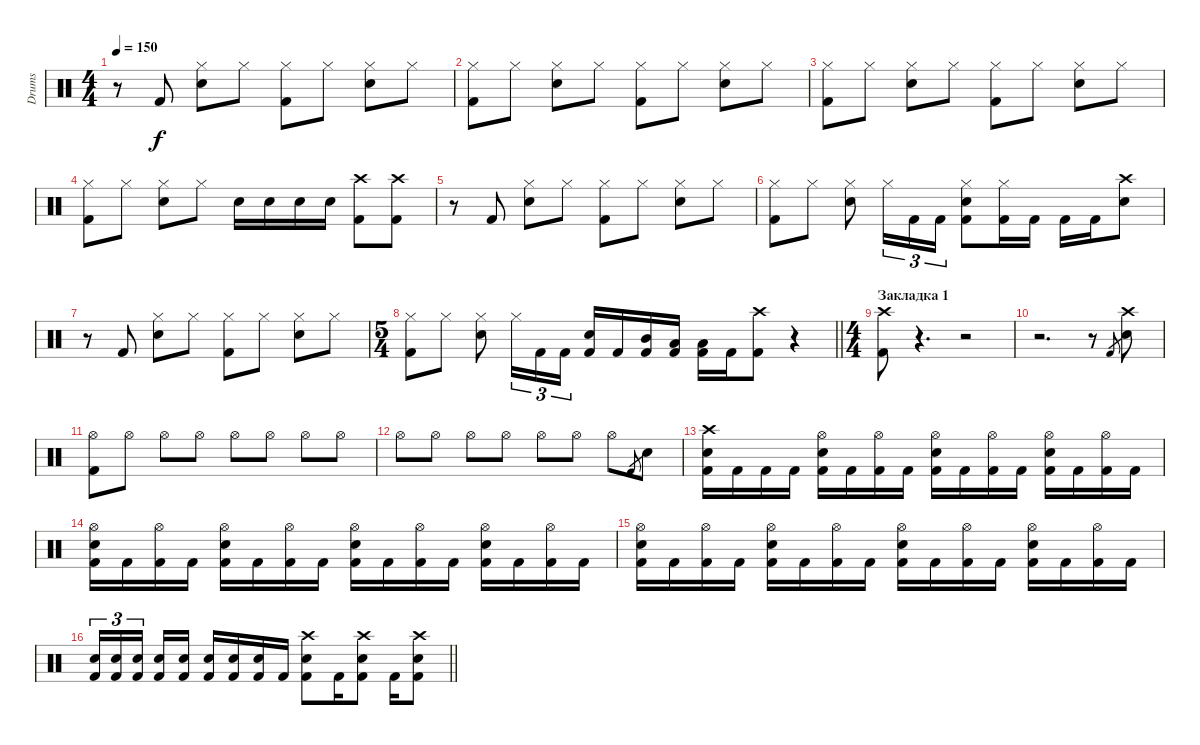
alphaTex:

\track ("Drums" "Drums") {instrument percussion}
\staff {score}
\articulation defaults
\ts (4 4)
\tempo 150
\clef neutral
\ks c
r.8{dy f} "Kick (hit) 2".8 ("Snare (hit) 2" "Hi-Hat (closed)").8 "Hi-Hat (closed)".8 ("Kick (hit) 2" "Hi-Hat (closed)").8 "Hi-Hat (closed)".8 ("Snare (hit) 2" "Hi-Hat (closed)").8 "Hi-Hat (closed)".8 |
("Kick (hit) 2" "Hi-Hat (closed)").8 "Hi-Hat (closed)".8 ("Snare (hit) 2" "Hi-Hat (closed)").8 "Hi-Hat (closed)".8 ("Kick (hit) 2" "Hi-Hat (closed)").8 "Hi-Hat (closed)".8 ("Snare (hit) 2" "Hi-Hat (closed)").8 "Hi-Hat (closed)".8 |
("Kick (hit) 2" "Hi-Hat (closed)").8 "Hi-Hat (closed)".8 ("Snare (hit) 2" "Hi-Hat (closed)").8 "Hi-Hat (closed)".8 ("Kick (hit) 2" "Hi-Hat (closed)").8 "Hi-Hat (closed)".8 ("Snare (hit) 2" "Hi-Hat (closed)").8 "Hi-Hat (closed)".8 |
("Kick (hit) 2" "Hi-Hat (closed)").8 "Hi-Hat (closed)".8 ("Snare (hit) 2" "Hi-Hat (closed)").8 "Hi-Hat (closed)".8 "Snare (hit) 2".16 "Snare (hit) 2".16 "Snare (hit) 2".16 "Snare (hit) 2".16 ("Crash high (hit)" "Kick (hit) 2").8 ("Crash high (hit)" "Kick (hit) 2").8 |
r.8 "Kick (hit) 2".8 ("Snare (hit) 2" "Hi-Hat (closed)").8 "Hi-Hat (closed)".8 ("Kick (hit) 2" "Hi-Hat (closed)").8 "Hi-Hat (closed)".8 ("Snare (hit) 2" "Hi-Hat (closed)").8 "Hi-Hat (closed)".8 |
("Kick (hit) 2" "Hi-Hat (closed)").8 "Hi-Hat (closed)".8 ("Snare (hit) 2" "Hi-Hat (closed)").8 "Hi-Hat (closed)".16{tu (3 2)} "Kick (hit) 2".16{tu (3 2)} "Kick (hit) 2".16{tu (3 2)} ("Snare (hit) 2" "Kick (hit) 2" "Hi-Hat (closed)").8 ("Kick (hit) 2" "Hi-Hat (closed)").16 "Kick (hit) 2".16 "Kick (hit) 2".16 "Kick (hit) 2".16 ("Snare (hit) 2" "Crash high (hit)").8 |
r.8 "Kick (hit) 2".8 ("Snare (hit) 2" "Hi-Hat (closed)").8 "Hi-Hat (closed)".8 ("Kick (hit) 2" "Hi-Hat (closed)").8 "Hi-Hat (closed)".8 ("Snare (hit) 2" "Hi-Hat (closed)").8 "Hi-Hat (closed)".8 |
\ts (5 4)
\barLineRight lightlight
("Kick (hit) 2" "Hi-Hat (closed)").8 "Hi-Hat (closed)".8 ("Snare (hit) 2" "Hi-Hat (closed)").8 "Hi-Hat (closed)".16{tu (3 2)} "Kick (hit) 2".16{tu (3 2)} "Kick (hit) 2".16{tu (3 2)} ("Snare (hit) 2" "Kick (hit) 2").16 "Kick (hit) 2".16 ("Mid Tom (hit)" "Kick (hit) 2").16 ("Low Tom (hit)" "Kick (hit) 2").16 ("Low Floor Tom (hit)" "Kick (hit) 2").16 "Kick (hit) 2".16 ("Crash high (hit)" "Kick (hit) 2").8 r.4 |
\ts (4 4)
\section ("" "Закладка 1")
("Crash high (hit)" "Kick (hit) 2").8 r.4{d} r.2 |
r.2{d} r.8 "Kick (hit) 2".8{gr} ("Crash high (hit)" "Snare (hit) 2").8 |
("Kick (hit) 2" "Hi-Hat (open)").8 "Hi-Hat (open)".8 "Hi-Hat (open)".8 "Hi-Hat (open)".8 "Hi-Hat (open)".8 "Hi-Hat (open)".8 "Hi-Hat (open)".8 "Hi-Hat (open)".8 |
"Hi-Hat (open)".8 "Hi-Hat (open)".8 "Hi-Hat (open)".8 "Hi-Hat (open)".8 "Hi-Hat (open)".8 "Hi-Hat (open)".8 "Hi-Hat (open)".8 "Kick (hit) 2".8{gr} "Snare (hit) 2".8 |
("Crash high (hit)" "Snare (hit) 2" "Kick (hit) 2").16 "Kick (hit) 2".16 "Kick (hit) 2".16 "Kick (hit) 2".16 ("Snare (hit) 2" "Hi-Hat (open)" "Kick (hit) 2").16 "Kick (hit) 2".16 ("Hi-Hat (open)" "Kick (hit) 2").16 "Kick (hit) 2".16 ("Snare (hit) 2" "Hi-Hat (open)" "Kick (hit) 2").16 "Kick (hit) 2".16 ("Hi-Hat (open)" "Kick (hit) 2").16 "Kick (hit) 2".16 ("Snare (hit) 2" "Hi-Hat (open)" "Kick (hit) 2").16 "Kick (hit) 2".16 ("Hi-Hat (open)" "Kick (hit) 2").16 "Kick (hit) 2".16 |
("Snare (hit) 2" "Hi-Hat (open)" "Kick (hit) 2").16 "Kick (hit) 2".16 ("Hi-Hat (open)" "Kick (hit) 2").16 "Kick (hit) 2".16 ("Snare (hit) 2" "Hi-Hat (open)" "Kick (hit) 2").16 "Kick (hit) 2".16 ("Hi-Hat (open)" "Kick (hit) 2").16 "Kick (hit) 2".16 ("Snare (hit) 2" "Hi-Hat (open)" "Kick (hit) 2").16 "Kick (hit) 2".16 ("Hi-Hat (open)" "Kick (hit) 2").16 "Kick (hit) 2".16 ("Snare (hit) 2" "Hi-Hat (open)" "Kick (hit) 2").16 "Kick (hit) 2".16 ("Hi-Hat (open)" "Kick (hit) 2").16 "Kick (hit) 2".16 |
("Snare (hit) 2" "Hi-Hat (open)" "Kick (hit) 2").16 "Kick (hit) 2".16 ("Hi-Hat (open)" "Kick (hit) 2").16 "Kick (hit) 2".16 ("Snare (hit) 2" "Hi-Hat (open)" "Kick (hit) 2").16 "Kick (hit) 2".16 ("Hi-Hat (open)" "Kick (hit) 2").16 "Kick (hit) 2".16 ("Snare (hit) 2" "Hi-Hat (open)" "Kick (hit) 2").16 "Kick (hit) 2".16 ("Hi-Hat (open)" "Kick (hit) 2").16 "Kick (hit) 2".16 ("Snare (hit) 2" "Hi-Hat (open)" "Kick (hit) 2").16 "Kick (hit) 2".16 ("Hi-Hat (open)" "Kick (hit) 2").16 "Kick (hit) 2".16 |
\barLineRight lightlight
("Snare (hit) 2" "Kick (hit) 2").16{tu (3 2)} ("Snare (hit) 2" "Kick (hit) 2").16{tu (3 2)} ("Snare (hit) 2" "Kick (hit) 2").16{tu (3 2) beam splitsecondary} ("Snare (hit) 2" "Kick (hit) 2").16 ("Snare (hit) 2" "Kick (hit) 2").16 ("Snare (hit) 2" "Kick (hit) 2").16 ("Snare (hit) 2" "Kick (hit) 2").16 ("Snare (hit) 2" "Kick (hit) 2").16 "Kick (hit) 2".16 ("Snare (hit) 2" "Crash high (hit)" "Kick (hit) 2").8 "Kick (hit) 2".16 ("Snare (hit) 2" "Crash high (hit)" "Kick (hit) 2").8 "Kick (hit) 2".16 ("Snare (hit) 2" "Crash high (hit)" "Kick (hit) 2").8
